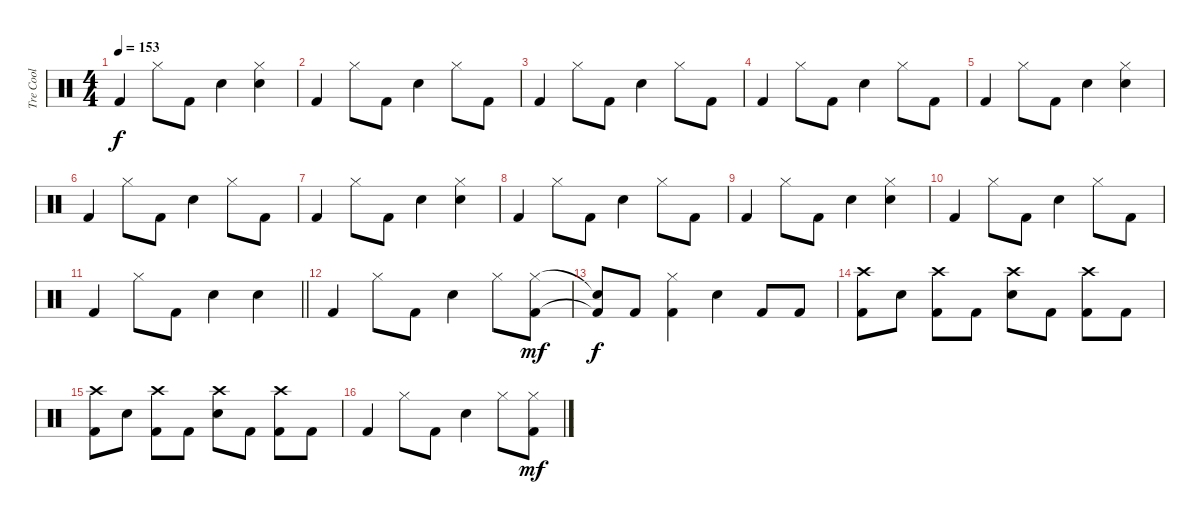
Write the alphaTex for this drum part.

\track ("Tre Cool" "Tre Cool") {instrument percussion}
\staff {score}
\articulation defaults
\ts (4 4)
\tempo 153
\clef neutral
\ks c "Kick (hit) 2".4{dy f} "Hi-Hat (closed)".8 "Kick (hit) 2".8 "Snare (hit) 2".4
("Snare (hit) 2" "Hi-Hat (closed)").4 |
"Kick (hit) 2".4 "Hi-Hat (closed)".8 "Kick (hit) 2".8 "Snare (hit) 2".4 "Hi-Hat (closed)".8 "Kick (hit) 2".8 |
"Kick (hit) 2".4 "Hi-Hat (closed)".8 "Kick (hit) 2".8 "Snare (hit) 2".4 "Hi-Hat (closed)".8 "Kick (hit) 2".8 |
"Kick (hit) 2".4 "Hi-Hat (closed)".8 "Kick (hit) 2".8 "Snare (hit) 2".4 "Hi-Hat (closed)".8 "Kick (hit) 2".8 |
"Kick (hit) 2".4 "Hi-Hat (closed)".8 "Kick (hit) 2".8 "Snare (hit) 2".4 ("Snare (hit) 2" "Hi-Hat (closed)").4 |
"Kick (hit) 2".4 "Hi-Hat (closed)".8 "Kick (hit) 2".8 "Snare (hit) 2".4 "Hi-Hat (closed)".8 "Kick (hit) 2".8 |
"Kick (hit) 2".4 "Hi-Hat (closed)".8 "Kick (hit) 2".8 "Snare (hit) 2".4 ("Snare (hit) 2" "Hi-Hat (closed)").4 |
"Kick (hit) 2".4 "Hi-Hat (closed)".8 "Kick (hit) 2".8 "Snare (hit) 2".4 "Hi-Hat (closed)".8 "Kick (hit) 2".8 |
"Kick (hit) 2".4 "Hi-Hat (closed)".8 "Kick (hit) 2".8 "Snare (hit) 2".4 ("Snare (hit) 2" "Hi-Hat (closed)").4 |
"Kick (hit) 2".4 "Hi-Hat (closed)".8 "Kick (hit) 2".8 "Snare (hit) 2".4 "Hi-Hat (closed)".8 "Kick (hit) 2".8 |
\barLineRight lightlight "Kick (hit) 2".4 "Hi-Hat (closed)".8 "Kick (hit) 2".8 "Snare (hit) 2".4 "Snare (hit) 2".4
|
"Kick (hit) 2".4{volume 15} "Hi-Hat (closed)".8 "Kick (hit) 2".8 "Snare (hit) 2".4 "Hi-Hat (closed)".8 ("Kick (hit) 2" "Hi-Hat (closed)").8{dy mf} |
("Kick (hit) 2"{t} "Snare (hit)"{t}).8{dy f} "Kick (hit) 2".8 ("Kick (hit) 2" "Hi-Hat (closed)").4 "Snare (hit) 2".4 "Kick (hit) 2".8 "Kick (hit) 2".8 |
("Kick (hit) 2" "Crash high (hit)").8 "Snare (hit) 2".8 ("Kick (hit) 2" "Crash high (hit)").8 "Kick (hit) 2".8 ("Snare (hit) 2" "Crash high (hit)").8 "Kick (hit) 2".8 ("Kick (hit) 2" "Crash high (hit)").8 "Kick (hit) 2".8 |
("Kick (hit) 2" "Crash high (hit)").8 "Snare (hit) 2".8 ("Kick (hit) 2" "Crash high (hit)").8 "Kick (hit) 2".8 ("Snare (hit) 2" "Crash high (hit)").8 "Kick (hit) 2".8 ("Kick (hit) 2" "Crash high (hit)").8 "Kick (hit) 2".8 |
"Kick (hit) 2".4 "Hi-Hat (closed)".8 "Kick (hit) 2".8 "Snare (hit) 2".4 "Hi-Hat (closed)".8 ("Kick (hit) 2" "Hi-Hat (closed)").8{dy mf}
